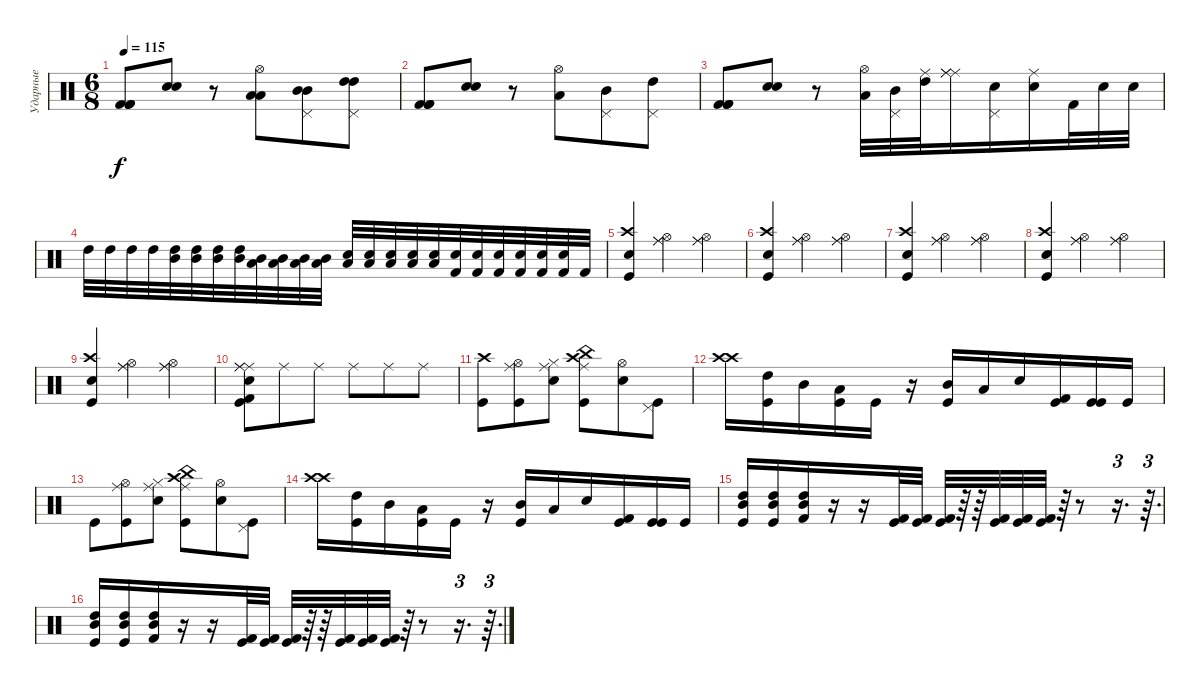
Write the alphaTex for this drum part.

\track ("Ударные" "Ударные") {instrument percussion}
\staff {score}
\articulation defaults
\ts (6 8)
\tempo 115
\clef neutral
\ks c
("Kick (hit) 2" "Kick (hit) 2" "Kick (hit) 2").8{dy f} ("Electric Snare (hit)" "Electric Snare (hit)").8 r.8 ("Low Tom (hit)" "Low Tom (hit)" "Hi-Hat (open)").8 ("Mid Tom (hit)" "Mid Tom (hit)" "Pedal Hi-Hat (hit)").8 ("High Tom (hit)" "High Tom (hit)" "Pedal Hi-Hat (hit)").8 |
("Kick (hit) 2" "Kick (hit) 2" "Kick (hit) 2").8 ("Electric Snare (hit)" "Electric Snare (hit)").8 r.8 ("Low Tom (hit)" "Hi-Hat (open)").8 ("Mid Tom (hit)" "Pedal Hi-Hat (hit)").8 ("High Tom (hit)" "Pedal Hi-Hat (hit)").8 |
("Kick (hit) 2" "Kick (hit) 2" "Kick (hit) 2").8 ("Electric Snare (hit)" "Electric Snare (hit)").8 r.8 ("Low Tom (hit)" "Hi-Hat (open)").32 ("Mid Tom (hit)" "Pedal Hi-Hat (hit)").32 ("High Tom (hit)" "Ride (middle)").32 ("Ride (middle)" "Ride (middle)" "Ride (middle)").16 ("Pedal Hi-Hat (hit)" "Snare (hit) 2").16 ("Ride (middle)" "Snare (hit) 2").16 "Kick (hit) 2".32 "Electric Snare (hit)".32 "Electric Snare (hit)".32 |
"High Tom (hit)".32 "High Tom (hit)".32 "High Tom (hit)".32 "High Tom (hit)".32 ("High Tom (hit)" "Mid Tom (hit)").32 ("High Tom (hit)" "Mid Tom (hit)").32 ("High Tom (hit)" "Mid Tom (hit)").32 ("High Tom (hit)" "Mid Tom (hit)").32 ("Mid Tom (hit)" "Low Tom (hit)").32 ("Mid Tom (hit)" "Low Tom (hit)").32 ("Mid Tom (hit)" "Low Tom (hit)").32 ("Mid Tom (hit)" "Low Tom (hit)").32 ("Low Tom (hit)" "Electric Snare (hit)").32 ("Low Tom (hit)" "Electric Snare (hit)").32 ("Low Tom (hit)" "Electric Snare (hit)").32 ("Low Tom (hit)" "Electric Snare (hit)").32 ("Low Tom (hit)" "Electric Snare (hit)").32 ("Electric Snare (hit)" "Kick (hit) 2").32 ("Electric Snare (hit)" "Kick (hit) 2").32 ("Electric Snare (hit)" "Kick (hit) 2").32 ("Electric Snare (hit)" "Kick (hit) 2").32 ("Electric Snare (hit)" "Kick (hit) 2").32 ("Electric Snare (hit)" "Kick (hit) 2").32 "Kick (hit) 2".32 |
("Crash high (hit)" "Electric Snare (hit)" "Kick (hit)").4 ("Ride (middle)" "Ride (middle)" "Hi-Hat (open)").4 ("Ride (middle)" "Ride (middle)" "Hi-Hat (open)").4 |
("Crash high (hit)" "Electric Snare (hit)" "Kick (hit)").4 ("Ride (middle)" "Ride (middle)" "Hi-Hat (open)").4 ("Ride (middle)" "Ride (middle)" "Hi-Hat (open)").4 |
("Crash high (hit)" "Electric Snare (hit)" "Kick (hit)").4 ("Ride (middle)" "Ride (middle)" "Hi-Hat (open)").4 ("Ride (middle)" "Ride (middle)" "Hi-Hat (open)").4 |
("Crash high (hit)" "Electric Snare (hit)" "Kick (hit)").4 ("Ride (middle)" "Ride (middle)" "Hi-Hat (open)").4 ("Ride (middle)" "Ride (middle)" "Hi-Hat (open)").4 |
("Crash high (hit)" "Electric Snare (hit)" "Kick (hit)").4 ("Ride (middle)" "Ride (middle)" "Hi-Hat (open)").4 ("Ride (middle)" "Ride (middle)" "Hi-Hat (open)").4 |
("Electric Snare (hit)" "Kick (hit) 2" "Kick (hit)" "Ride (middle)" "Ride (middle)" "Ride (middle)").8 "Ride (middle)".8 "Ride (middle)".8 "Ride (middle)".8 "Ride (middle)".8 "Ride (middle)".8 |
("Kick (hit)" "Crash high (hit)").8 ("Ride (middle)" "Kick (hit)" "Hi-Hat (open)").8 ("Ride (middle)" "Snare (hit) 2" "Hi-Hat (closed)").8 ("Ride (middle)" "Kick (hit)" "China (hit)" "Crash high (hit)").8 ("Hi-Hat (open)" "Electric Snare (hit)").8 ("Pedal Hi-Hat (hit)" "Kick (hit)").8 |
("Crash high (hit)" "Crash high (hit)").16 ("High Tom (hit)" "Kick (hit)").16 "Mid Tom (hit)".16 ("Low Tom (hit)" "Kick (hit)").16 "Kick (hit)".16 r.16 ("Mid Tom (hit)" "Kick (hit)").16 "Low Tom (hit)".16 "Snare (hit) 2".16 ("Kick (hit) 2" "Kick (hit)").16 ("Kick (hit)" "Kick (hit)").16 "Kick (hit)".16 |
"Kick (hit)".8 ("Ride (middle)" "Kick (hit)" "Hi-Hat (open)").8 ("Ride (middle)" "Snare (hit) 2" "Hi-Hat (closed)").8 ("Ride (middle)" "Kick (hit)" "China (hit)" "Crash high (hit)").8 ("Hi-Hat (open)" "Electric Snare (hit)").8 ("Pedal Hi-Hat (hit)" "Kick (hit)").8 |
("Crash high (hit)" "Crash high (hit)").16 ("High Tom (hit)" "Kick (hit)").16 "Mid Tom (hit)".16 ("Low Tom (hit)" "Kick (hit)").16 "Kick (hit)".16 r.16 ("Mid Tom (hit)" "Kick (hit)").16 "Low Tom (hit)".16 "Snare (hit) 2".16 ("Kick (hit) 2" "Kick (hit)").16 ("Kick (hit)" "Kick (hit)").16 "Kick (hit)".16 |
("High Tom (hit)" "Mid Tom (hit)" "Kick (hit)").16 ("High Tom (hit)" "Mid Tom (hit)" "Kick (hit)").16 ("High Tom (hit)" "Mid Tom (hit)" "Kick (hit) 2").16 r.16 r.16 ("Kick (hit)" "Kick (hit) 2").32 ("Kick (hit)" "Kick (hit) 2").32 ("Kick (hit)" "Kick (hit) 2").32 r.64 r.64 ("Kick (hit)" "Kick (hit) 2").32 ("Kick (hit)" "Kick (hit) 2").32 ("Kick (hit)" "Kick (hit) 2").32 r.64 r.8 r.16{d tu (3 2)} r.64{d tu (3 2)} |
("High Tom (hit)" "Mid Tom (hit)" "Kick (hit)").16 ("High Tom (hit)" "Mid Tom (hit)" "Kick (hit)").16 ("High Tom (hit)" "Mid Tom (hit)" "Kick (hit) 2").16 r.16 r.16 ("Kick (hit)" "Kick (hit) 2").32 ("Kick (hit)" "Kick (hit) 2").32 ("Kick (hit)" "Kick (hit) 2").32 r.64 r.64 ("Kick (hit)" "Kick (hit) 2").32 ("Kick (hit)" "Kick (hit) 2").32 ("Kick (hit)" "Kick (hit) 2").32 r.64 r.8 r.16{d tu (3 2)} r.64{d tu (3 2)}
